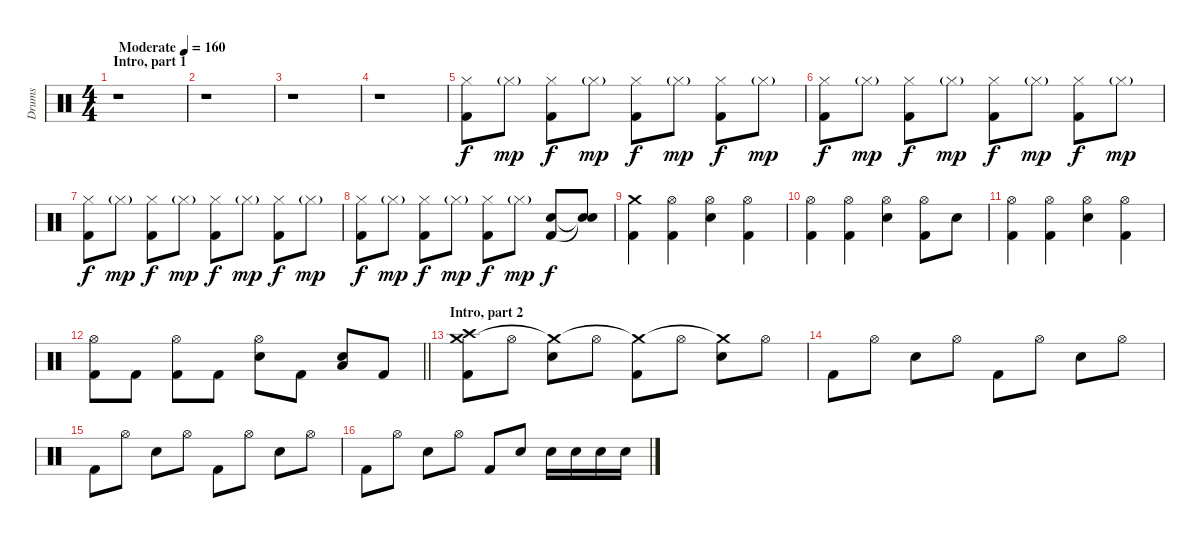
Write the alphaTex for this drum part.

\track ("Drums" "Drums") {instrument percussion}
\staff {score}
\articulation defaults
\ts (4 4)
\section ("" "Intro, part 1")
\tempo (160 "Moderate")
\clef neutral
\ks c
r.1{dy f} |
r.1 |
r.1 |
r.1 |
("Kick (hit) 2" "Hi-Hat (closed)").8 "Hi-Hat (closed)"{g}.8{dy mp} ("Kick (hit) 2" "Hi-Hat (closed)").8{dy f} "Hi-Hat (closed)"{g}.8{dy mp} ("Kick (hit) 2" "Hi-Hat (closed)").8{dy f} "Hi-Hat (closed)"{g}.8{dy mp} ("Kick (hit) 2" "Hi-Hat (closed)").8{dy f} "Hi-Hat (closed)"{g}.8{dy mp} |
("Kick (hit) 2" "Hi-Hat (closed)").8{dy f} "Hi-Hat (closed)"{g}.8{dy mp} ("Kick (hit) 2" "Hi-Hat (closed)").8{dy f} "Hi-Hat (closed)"{g}.8{dy mp} ("Kick (hit) 2" "Hi-Hat (closed)").8{dy f} "Hi-Hat (closed)"{g}.8{dy mp} ("Kick (hit) 2" "Hi-Hat (closed)").8{dy f} "Hi-Hat (closed)"{g}.8{dy mp} |
("Kick (hit) 2" "Hi-Hat (closed)").8{dy f} "Hi-Hat (closed)"{g}.8{dy mp} ("Kick (hit) 2" "Hi-Hat (closed)").8{dy f} "Hi-Hat (closed)"{g}.8{dy mp} ("Kick (hit) 2" "Hi-Hat (closed)").8{dy f} "Hi-Hat (closed)"{g}.8{dy mp} ("Kick (hit) 2" "Hi-Hat (closed)").8{dy f} "Hi-Hat (closed)"{g}.8{dy mp} |
("Kick (hit) 2" "Hi-Hat (closed)").8{dy f} "Hi-Hat (closed)"{g}.8{dy mp} ("Kick (hit) 2" "Hi-Hat (closed)").8{dy f} "Hi-Hat (closed)"{g}.8{dy mp} ("Kick (hit) 2" "Hi-Hat (closed)").8{dy f} "Hi-Hat (closed)"{g}.8{dy mp} ("Electric Snare (hit)" "Kick (hit) 2").8{dy f} ("Snare (hit)"{t} "Snare (hit)"{t}).8 |
("Kick (hit) 2" "Crash medium (hit)").4 ("Kick (hit) 2" "Hi-Hat (open)").4 ("Electric Snare (hit)" "Hi-Hat (open)").4 ("Kick (hit) 2" "Hi-Hat (open)").4 |
("Kick (hit) 2" "Hi-Hat (open)").4 ("Kick (hit) 2" "Hi-Hat (open)").4 ("Electric Snare (hit)" "Hi-Hat (open)").4 ("Kick (hit) 2" "Hi-Hat (open)").8 "Electric Snare (hit)".8 |
("Kick (hit) 2" "Hi-Hat (open)").4 ("Kick (hit) 2" "Hi-Hat (open)").4 ("Electric Snare (hit)" "Hi-Hat (open)").4 ("Kick (hit) 2" "Hi-Hat (open)").4 |
\barLineRight lightlight
("Kick (hit) 2" "Hi-Hat (open)").8 "Kick (hit) 2".8 ("Kick (hit) 2" "Hi-Hat (open)").8 "Kick (hit) 2".8 ("Electric Snare (hit)" "Hi-Hat (open)").8 "Kick (hit) 2".8 ("Electric Snare (hit)" "Low Floor Tom (hit)").8 "Kick (hit) 2".8 |
\section ("" "Intro, part 2")
("Kick (hit) 2" "Crash medium (hit)" "Crash high (hit)").8 "Hi-Hat (open)".8 ("Electric Snare (hit)" "Crash medium (hit)"{t}).8 "Hi-Hat (open)".8 ("Kick (hit) 2" "Crash medium (hit)"{t}).8 "Hi-Hat (open)".8 ("Electric Snare (hit)" "Crash medium (hit)"{t}).8 "Hi-Hat (open)".8 |
"Kick (hit) 2".8 "Hi-Hat (open)".8 "Electric Snare (hit)".8 "Hi-Hat (open)".8 "Kick (hit) 2".8 "Hi-Hat (open)".8 "Electric Snare (hit)".8 "Hi-Hat (open)".8 |
"Kick (hit) 2".8 "Hi-Hat (open)".8 "Electric Snare (hit)".8 "Hi-Hat (open)".8 "Kick (hit) 2".8 "Hi-Hat (open)".8 "Electric Snare (hit)".8 "Hi-Hat (open)".8 |
"Kick (hit) 2".8 "Hi-Hat (open)".8 "Electric Snare (hit)".8 "Hi-Hat (open)".8 "Kick (hit) 2".8 "Electric Snare (hit)".8 "Electric Snare (hit)".16 "Electric Snare (hit)".16 "Electric Snare (hit)".16 "Electric Snare (hit)".16
